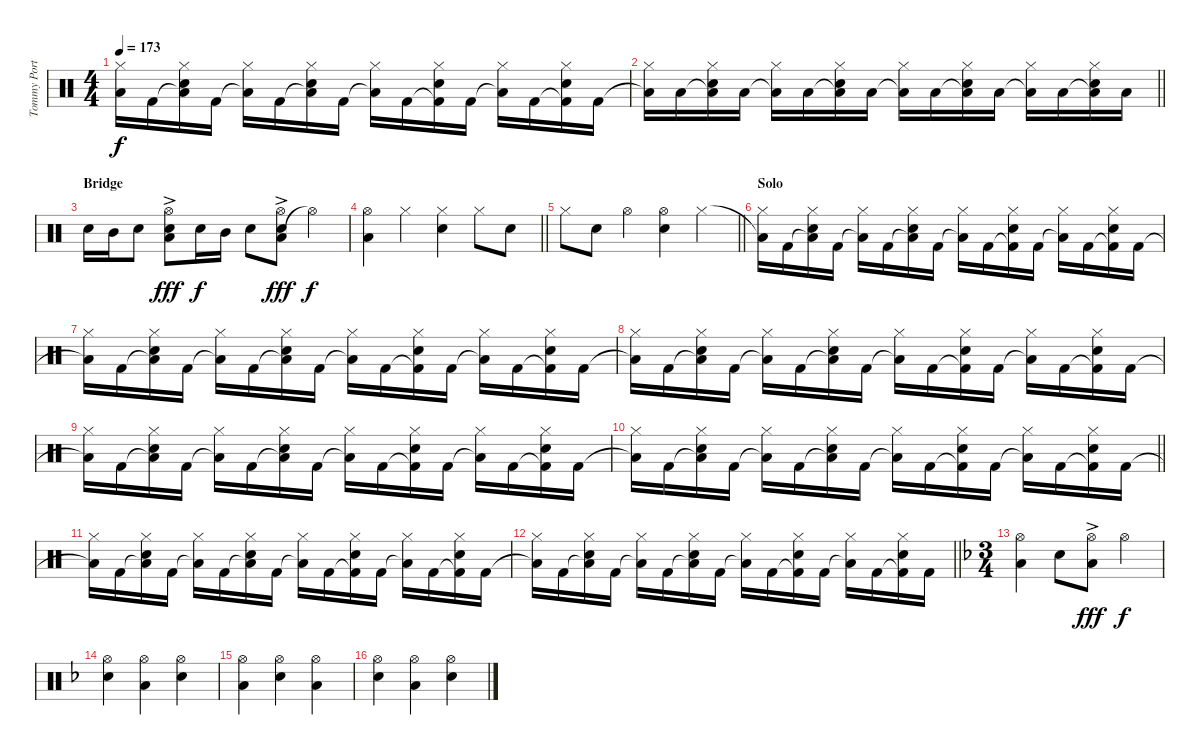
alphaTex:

\track ("Tommy Portimo - Drums" "Tommy Port") {instrument percussion}
\staff {score}
\articulation defaults
\ts (4 4)
\tempo 173
\clef neutral
\ks c
("Low Floor Tom (hit)"{t} "Hi-Hat (closed)").16{dy f} "Kick (hit) 2".16 ("Low Floor Tom (hit)"{t} "Electric Snare (hit)" "Hi-Hat (closed)").16 "Kick (hit) 2".16 ("Low Floor Tom (hit)"{t} "Hi-Hat (closed)").16 "Kick (hit) 2".16 ("Low Floor Tom (hit)"{t} "Electric Snare (hit)" "Hi-Hat (closed)").16 "Kick (hit) 2".16 ("Low Floor Tom (hit)"{t} "Hi-Hat (closed)").16 "Kick (hit) 2".16 ("Kick (hit) 2"{t} "Electric Snare (hit)" "Hi-Hat (closed)").16 "Kick (hit) 2".16 ("Low Floor Tom (hit)"{t} "Hi-Hat (closed)").16 "Kick (hit) 2".16 ("Kick (hit) 2"{t} "Electric Snare (hit)" "Hi-Hat (closed)").16 "Kick (hit) 2".16 |
\barLineRight lightlight
("Low Floor Tom (hit)"{t} "Hi-Hat (closed)").16 "Low Floor Tom (hit)".16 ("Low Floor Tom (hit)"{t} "Electric Snare (hit)" "Hi-Hat (closed)").16 "Low Floor Tom (hit)".16 ("Low Floor Tom (hit)"{t} "Hi-Hat (closed)").16 "Low Floor Tom (hit)".16 ("Low Floor Tom (hit)"{t} "Electric Snare (hit)" "Hi-Hat (closed)").16 "Low Floor Tom (hit)".16 ("Low Floor Tom (hit)"{t} "Hi-Hat (closed)").16 "Low Floor Tom (hit)".16 ("Low Floor Tom (hit)"{t} "Electric Snare (hit)" "Hi-Hat (closed)").16 "Low Floor Tom (hit)".16 ("Low Floor Tom (hit)"{t} "Hi-Hat (closed)").16 "Low Floor Tom (hit)".16 ("Low Floor Tom (hit)"{t} "Electric Snare (hit)" "Hi-Hat (closed)").16 "Low Floor Tom (hit)".16 |
\section ("" "Bridge")
"Electric Snare (hit)".16 "Mid Tom (hit)".16 "Electric Snare (hit)".8 ("Low Floor Tom (hit)" "Electric Snare (hit)"{ac} "Hi-Hat (open)").8{dy fff} "Electric Snare (hit)".16{dy f} "Mid Tom (hit)".16 "Electric Snare (hit)".8 ("Low Floor Tom (hit)"{ac} "Electric Snare (hit)" "Hi-Hat (open)").8{dy fff} "Hi-Hat (open)"{t}.4{dy f} |
\barLineRight lightlight
("Low Floor Tom (hit)" "Hi-Hat (open)").4 "Hi-Hat (closed)".4 ("Electric Snare (hit)" "Hi-Hat (closed)").4 "Hi-Hat (closed)".8 "Electric Snare (hit)".8 |
\barLineRight lightlight "Hi-Hat (closed)".8 "Electric Snare (hit)".8 "Hi-Hat (open)".4
("Electric Snare (hit)" "Hi-Hat (open)").4 "Hi-Hat (closed)".4 |
\section ("" "Solo")
("Low Floor Tom (hit)"{t} "Hi-Hat (closed)").16 "Kick (hit) 2".16 ("Low Floor Tom (hit)"{t} "Electric Snare (hit)" "Hi-Hat (closed)").16 "Kick (hit) 2".16 ("Low Floor Tom (hit)"{t} "Hi-Hat (closed)").16 "Kick (hit) 2".16 ("Low Floor Tom (hit)"{t} "Electric Snare (hit)" "Hi-Hat (closed)").16 "Kick (hit) 2".16 ("Low Floor Tom (hit)"{t} "Hi-Hat (closed)").16 "Kick (hit) 2".16 ("Kick (hit) 2"{t} "Electric Snare (hit)" "Hi-Hat (closed)").16 "Kick (hit) 2".16 ("Low Floor Tom (hit)"{t} "Hi-Hat (closed)").16 "Kick (hit) 2".16 ("Kick (hit) 2"{t} "Electric Snare (hit)" "Hi-Hat (closed)").16 "Kick (hit) 2".16 |
("Low Floor Tom (hit)"{t} "Hi-Hat (closed)").16 "Kick (hit) 2".16 ("Low Floor Tom (hit)"{t} "Electric Snare (hit)" "Hi-Hat (closed)").16 "Kick (hit) 2".16 ("Low Floor Tom (hit)"{t} "Hi-Hat (closed)").16 "Kick (hit) 2".16 ("Low Floor Tom (hit)"{t} "Electric Snare (hit)" "Hi-Hat (closed)").16 "Kick (hit) 2".16 ("Low Floor Tom (hit)"{t} "Hi-Hat (closed)").16 "Kick (hit) 2".16 ("Kick (hit) 2"{t} "Electric Snare (hit)" "Hi-Hat (closed)").16 "Kick (hit) 2".16 ("Low Floor Tom (hit)"{t} "Hi-Hat (closed)").16 "Kick (hit) 2".16 ("Kick (hit) 2"{t} "Electric Snare (hit)" "Hi-Hat (closed)").16 "Kick (hit) 2".16 |
("Low Floor Tom (hit)"{t} "Hi-Hat (closed)").16 "Kick (hit) 2".16 ("Low Floor Tom (hit)"{t} "Electric Snare (hit)" "Hi-Hat (closed)").16 "Kick (hit) 2".16 ("Low Floor Tom (hit)"{t} "Hi-Hat (closed)").16 "Kick (hit) 2".16 ("Low Floor Tom (hit)"{t} "Electric Snare (hit)" "Hi-Hat (closed)").16 "Kick (hit) 2".16 ("Low Floor Tom (hit)"{t} "Hi-Hat (closed)").16 "Kick (hit) 2".16 ("Kick (hit) 2"{t} "Electric Snare (hit)" "Hi-Hat (closed)").16 "Kick (hit) 2".16 ("Low Floor Tom (hit)"{t} "Hi-Hat (closed)").16 "Kick (hit) 2".16 ("Kick (hit) 2"{t} "Electric Snare (hit)" "Hi-Hat (closed)").16 "Kick (hit) 2".16 |
("Low Floor Tom (hit)"{t} "Hi-Hat (closed)").16 "Kick (hit) 2".16 ("Low Floor Tom (hit)"{t} "Electric Snare (hit)" "Hi-Hat (closed)").16 "Kick (hit) 2".16 ("Low Floor Tom (hit)"{t} "Hi-Hat (closed)").16 "Kick (hit) 2".16 ("Low Floor Tom (hit)"{t} "Electric Snare (hit)" "Hi-Hat (closed)").16 "Kick (hit) 2".16 ("Low Floor Tom (hit)"{t} "Hi-Hat (closed)").16 "Kick (hit) 2".16 ("Kick (hit) 2"{t} "Electric Snare (hit)" "Hi-Hat (closed)").16 "Kick (hit) 2".16 ("Low Floor Tom (hit)"{t} "Hi-Hat (closed)").16 "Kick (hit) 2".16 ("Kick (hit) 2"{t} "Electric Snare (hit)" "Hi-Hat (closed)").16 "Kick (hit) 2".16 |
\barLineRight lightlight
("Low Floor Tom (hit)"{t} "Hi-Hat (closed)").16 "Kick (hit) 2".16 ("Low Floor Tom (hit)"{t} "Electric Snare (hit)" "Hi-Hat (closed)").16 "Kick (hit) 2".16 ("Low Floor Tom (hit)"{t} "Hi-Hat (closed)").16 "Kick (hit) 2".16 ("Low Floor Tom (hit)"{t} "Electric Snare (hit)" "Hi-Hat (closed)").16 "Kick (hit) 2".16 ("Low Floor Tom (hit)"{t} "Hi-Hat (closed)").16 "Kick (hit) 2".16 ("Kick (hit) 2"{t} "Electric Snare (hit)" "Hi-Hat (closed)").16 "Kick (hit) 2".16 ("Low Floor Tom (hit)"{t} "Hi-Hat (closed)").16 "Kick (hit) 2".16 ("Kick (hit) 2"{t} "Electric Snare (hit)" "Hi-Hat (closed)").16 "Kick (hit) 2".16 |
\ks aminor
("Low Floor Tom (hit)"{t} "Hi-Hat (closed)").16 "Kick (hit) 2".16 ("Low Floor Tom (hit)"{t} "Electric Snare (hit)" "Hi-Hat (closed)").16 "Kick (hit) 2".16 ("Low Floor Tom (hit)"{t} "Hi-Hat (closed)").16 "Kick (hit) 2".16 ("Low Floor Tom (hit)"{t} "Electric Snare (hit)" "Hi-Hat (closed)").16 "Kick (hit) 2".16 ("Low Floor Tom (hit)"{t} "Hi-Hat (closed)").16 "Kick (hit) 2".16 ("Kick (hit) 2"{t} "Electric Snare (hit)" "Hi-Hat (closed)").16 "Kick (hit) 2".16 ("Low Floor Tom (hit)"{t} "Hi-Hat (closed)").16 "Kick (hit) 2".16 ("Kick (hit) 2"{t} "Electric Snare (hit)" "Hi-Hat (closed)").16 "Kick (hit) 2".16 |
\barLineRight lightlight
("Low Floor Tom (hit)"{t} "Hi-Hat (closed)").16 "Kick (hit) 2".16 ("Low Floor Tom (hit)"{t} "Electric Snare (hit)" "Hi-Hat (closed)").16 "Kick (hit) 2".16 ("Low Floor Tom (hit)"{t} "Hi-Hat (closed)").16 "Kick (hit) 2".16 ("Low Floor Tom (hit)"{t} "Electric Snare (hit)" "Hi-Hat (closed)").16 "Kick (hit) 2".16 ("Low Floor Tom (hit)"{t} "Hi-Hat (closed)").16 "Kick (hit) 2".16 ("Kick (hit) 2"{t} "Electric Snare (hit)" "Hi-Hat (closed)").16 "Kick (hit) 2".16 ("Low Floor Tom (hit)"{t} "Hi-Hat (closed)").16 "Kick (hit) 2".16 ("Kick (hit) 2"{t} "Electric Snare (hit)" "Hi-Hat (closed)").16 "Kick (hit) 2".16 |
\ts (3 4)
\ks dminor
("Low Floor Tom (hit)" "Hi-Hat (open)").4 "Electric Snare (hit)".8 ("Low Floor Tom (hit)" "Hi-Hat (open)"{ac}).8{dy fff} "Hi-Hat (open)".4{dy f} |
("Electric Snare (hit)" "Hi-Hat (open)").4 ("Low Floor Tom (hit)" "Hi-Hat (open)").4 ("Electric Snare (hit)" "Hi-Hat (open)").4 |
("Low Floor Tom (hit)" "Hi-Hat (open)").4 ("Electric Snare (hit)" "Hi-Hat (open)").4 ("Low Floor Tom (hit)" "Hi-Hat (open)").4 |
("Electric Snare (hit)" "Hi-Hat (open)").4 ("Low Floor Tom (hit)" "Hi-Hat (open)").4 ("Electric Snare (hit)" "Hi-Hat (open)").4
